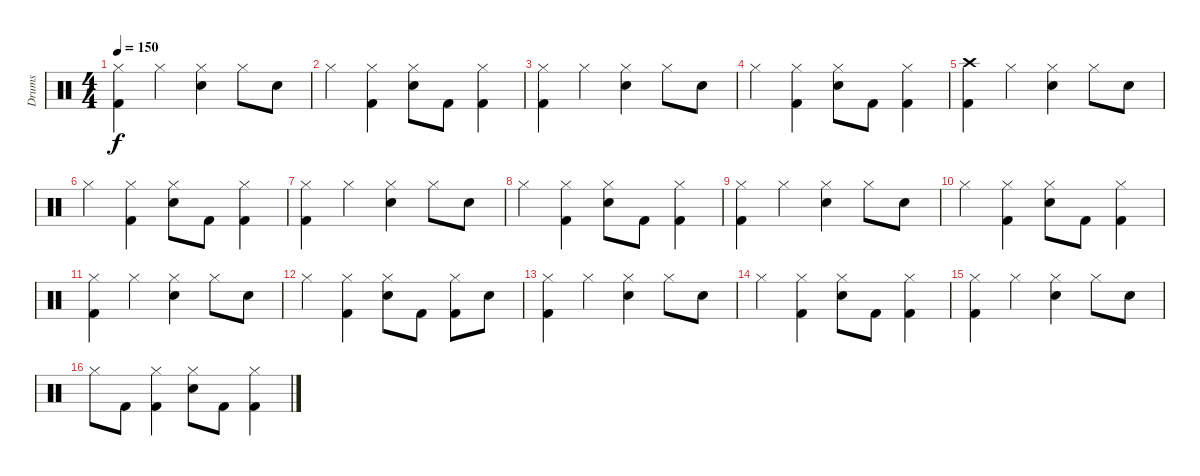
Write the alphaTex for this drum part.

\track ("Drums" "Drums") {instrument percussion}
\staff {score}
\articulation defaults
\ts (4 4)
\tempo 150
\clef neutral
\ks c
("Hi-Hat (closed)" "Kick (hit) 2").4{dy f} "Hi-Hat (closed)".4 ("Hi-Hat (closed)" "Electric Snare (hit)").4 "Hi-Hat (closed)".8 "Electric Snare (hit)".8 |
"Hi-Hat (closed)".4 ("Hi-Hat (closed)" "Kick (hit) 2").4 ("Hi-Hat (closed)" "Electric Snare (hit)").8 "Kick (hit) 2".8 ("Hi-Hat (closed)" "Kick (hit) 2").4 |
("Hi-Hat (closed)" "Kick (hit) 2").4 "Hi-Hat (closed)".4 ("Hi-Hat (closed)" "Electric Snare (hit)").4 "Hi-Hat (closed)".8 "Electric Snare (hit)".8 |
"Hi-Hat (closed)".4 ("Hi-Hat (closed)" "Kick (hit) 2").4 ("Hi-Hat (closed)" "Electric Snare (hit)").8 "Kick (hit) 2".8 ("Hi-Hat (closed)" "Kick (hit) 2").4 |
("Crash high (hit)" "Kick (hit) 2").4 "Hi-Hat (closed)".4 ("Hi-Hat (closed)" "Electric Snare (hit)").4 "Hi-Hat (closed)".8 "Electric Snare (hit)".8 |
"Hi-Hat (closed)".4 ("Hi-Hat (closed)" "Kick (hit) 2").4 ("Hi-Hat (closed)" "Electric Snare (hit)").8 "Kick (hit) 2".8 ("Hi-Hat (closed)" "Kick (hit) 2").4 |
("Hi-Hat (closed)" "Kick (hit) 2").4 "Hi-Hat (closed)".4 ("Hi-Hat (closed)" "Electric Snare (hit)").4 "Hi-Hat (closed)".8 "Electric Snare (hit)".8 |
"Hi-Hat (closed)".4 ("Hi-Hat (closed)" "Kick (hit) 2").4 ("Hi-Hat (closed)" "Electric Snare (hit)").8 "Kick (hit) 2".8 ("Hi-Hat (closed)" "Kick (hit) 2").4 |
("Hi-Hat (closed)" "Kick (hit) 2").4{volume 12} "Hi-Hat (closed)".4 ("Hi-Hat (closed)" "Electric Snare (hit)").4 "Hi-Hat (closed)".8 "Electric Snare (hit)".8 |
"Hi-Hat (closed)".4 ("Hi-Hat (closed)" "Kick (hit) 2").4 ("Hi-Hat (closed)" "Electric Snare (hit)").8 "Kick (hit) 2".8 ("Hi-Hat (closed)" "Kick (hit) 2").4 |
("Hi-Hat (closed)" "Kick (hit) 2").4{volume 8} "Hi-Hat (closed)".4 ("Hi-Hat (closed)" "Electric Snare (hit)").4 "Hi-Hat (closed)".8 "Electric Snare (hit)".8 |
"Hi-Hat (closed)".4 ("Hi-Hat (closed)" "Kick (hit) 2").4 ("Hi-Hat (closed)" "Electric Snare (hit)").8 "Kick (hit) 2".8 ("Hi-Hat (closed)" "Kick (hit) 2").8 "Electric Snare (hit)".8 |
("Hi-Hat (closed)" "Kick (hit) 2").4{volume 4} "Hi-Hat (closed)".4 ("Hi-Hat (closed)" "Electric Snare (hit)").4 "Hi-Hat (closed)".8 "Electric Snare (hit)".8 |
"Hi-Hat (closed)".4 ("Hi-Hat (closed)" "Kick (hit) 2").4 ("Hi-Hat (closed)" "Electric Snare (hit)").8 "Kick (hit) 2".8 ("Hi-Hat (closed)" "Kick (hit) 2").4 |
("Hi-Hat (closed)" "Kick (hit) 2").4{volume 0} "Hi-Hat (closed)".4 ("Hi-Hat (closed)" "Electric Snare (hit)").4 "Hi-Hat (closed)".8 "Electric Snare (hit)".8 |
"Hi-Hat (closed)".8 "Kick (hit) 2".8 ("Hi-Hat (closed)" "Kick (hit) 2").4 ("Hi-Hat (closed)" "Electric Snare (hit)").8 "Kick (hit) 2".8 ("Hi-Hat (closed)" "Kick (hit) 2").4
